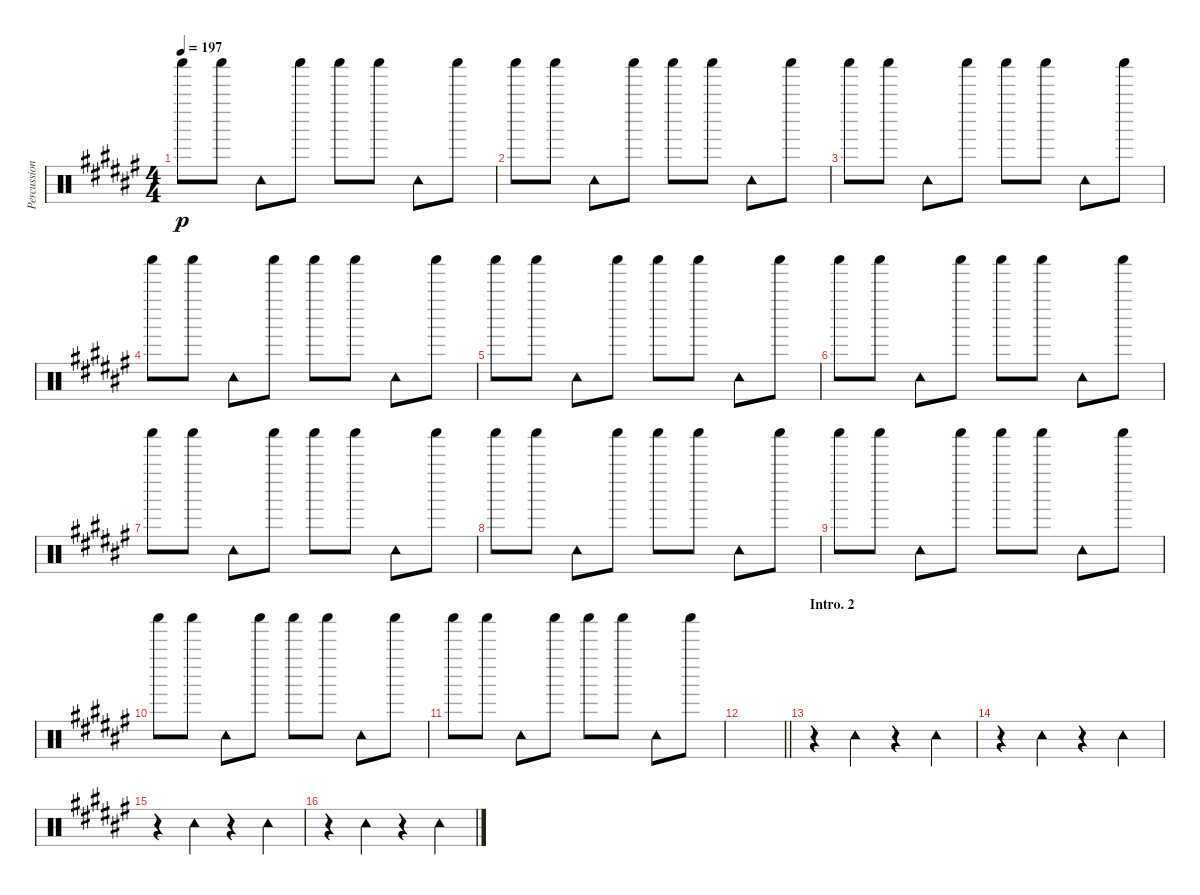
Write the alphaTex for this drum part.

\track ("Percussion (Tainaka Ritsu)" "Percussion") {instrument percussion}
\staff {score}
\articulation defaults
\ts (4 4)
\tempo 197
\clef neutral
\ks f# "Shaker (hit)".8{dy p} "Shaker (hit)".8 "Tambourine (hit)".8 "Shaker (hit)".8 "Shaker (hit)".8 "Shaker (hit)".8 "Tambourine (hit)".8 "Shaker (hit)".8
|
"Shaker (hit)".8 "Shaker (hit)".8 "Tambourine (hit)".8 "Shaker (hit)".8 "Shaker (hit)".8 "Shaker (hit)".8 "Tambourine (hit)".8 "Shaker (hit)".8 |
"Shaker (hit)".8 "Shaker (hit)".8 "Tambourine (hit)".8 "Shaker (hit)".8 "Shaker (hit)".8 "Shaker (hit)".8 "Tambourine (hit)".8 "Shaker (hit)".8 |
"Shaker (hit)".8 "Shaker (hit)".8 "Tambourine (hit)".8 "Shaker (hit)".8 "Shaker (hit)".8 "Shaker (hit)".8 "Tambourine (hit)".8 "Shaker (hit)".8 |
"Shaker (hit)".8 "Shaker (hit)".8 "Tambourine (hit)".8 "Shaker (hit)".8 "Shaker (hit)".8 "Shaker (hit)".8 "Tambourine (hit)".8 "Shaker (hit)".8 |
"Shaker (hit)".8 "Shaker (hit)".8 "Tambourine (hit)".8 "Shaker (hit)".8 "Shaker (hit)".8 "Shaker (hit)".8 "Tambourine (hit)".8 "Shaker (hit)".8 |
"Shaker (hit)".8 "Shaker (hit)".8 "Tambourine (hit)".8 "Shaker (hit)".8 "Shaker (hit)".8 "Shaker (hit)".8 "Tambourine (hit)".8 "Shaker (hit)".8 |
"Shaker (hit)".8 "Shaker (hit)".8 "Tambourine (hit)".8 "Shaker (hit)".8 "Shaker (hit)".8 "Shaker (hit)".8 "Tambourine (hit)".8 "Shaker (hit)".8 |
"Shaker (hit)".8 "Shaker (hit)".8 "Tambourine (hit)".8 "Shaker (hit)".8 "Shaker (hit)".8 "Shaker (hit)".8 "Tambourine (hit)".8 "Shaker (hit)".8 |
"Shaker (hit)".8 "Shaker (hit)".8 "Tambourine (hit)".8 "Shaker (hit)".8 "Shaker (hit)".8 "Shaker (hit)".8 "Tambourine (hit)".8 "Shaker (hit)".8 |
"Shaker (hit)".8 "Shaker (hit)".8 "Tambourine (hit)".8 "Shaker (hit)".8 "Shaker (hit)".8 "Shaker (hit)".8 "Tambourine (hit)".8 "Shaker (hit)".8 |
\barLineRight lightlight
|
\section ("" "Intro. 2")
r.4 "Tambourine (hit)".4 r.4 "Tambourine (hit)".4 |
r.4 "Tambourine (hit)".4 r.4 "Tambourine (hit)".4 |
r.4 "Tambourine (hit)".4 r.4 "Tambourine (hit)".4 |
r.4 "Tambourine (hit)".4 r.4 "Tambourine (hit)".4
